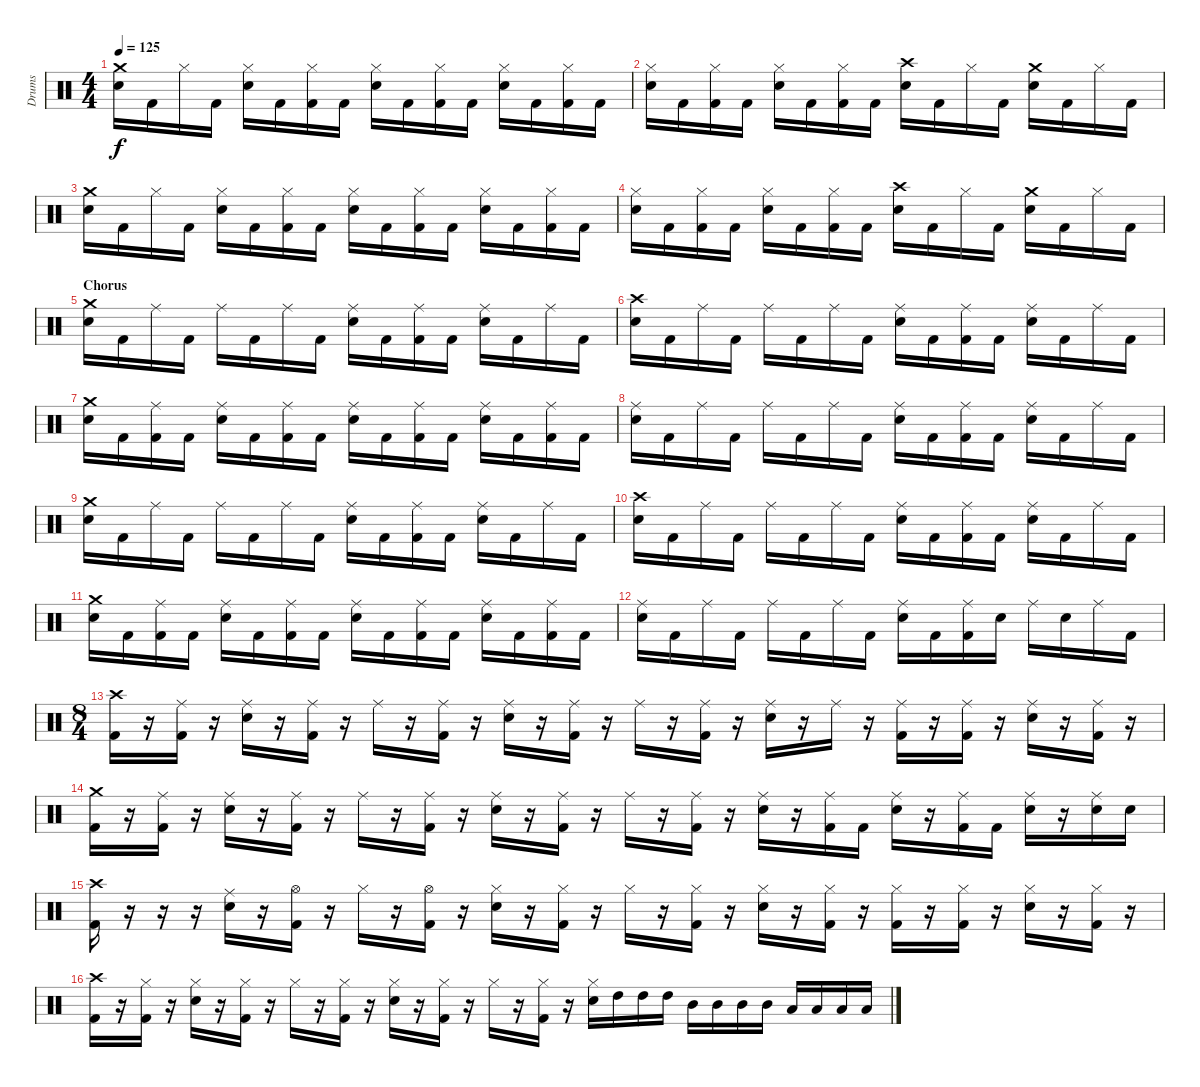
\track ("Drums" "Drums") {instrument percussion}
\staff {score}
\articulation defaults
\ts (4 4)
\tempo 125
\clef neutral
\ks c
("Crash medium (hit)" "Electric Snare (hit)").16{dy f} "Kick (hit) 2".16 "Hi-Hat (closed)".16 "Kick (hit) 2".16 ("Hi-Hat (closed)" "Electric Snare (hit)").16 "Kick (hit) 2".16 ("Hi-Hat (closed)" "Kick (hit) 2").16 "Kick (hit) 2".16 ("Hi-Hat (closed)" "Electric Snare (hit)").16 "Kick (hit) 2".16 ("Hi-Hat (closed)" "Kick (hit) 2").16 "Kick (hit) 2".16 ("Hi-Hat (closed)" "Electric Snare (hit)").16 "Kick (hit) 2".16 ("Hi-Hat (closed)" "Kick (hit) 2").16 "Kick (hit) 2".16 |
("Hi-Hat (closed)" "Electric Snare (hit)").16 "Kick (hit) 2".16 ("Hi-Hat (closed)" "Kick (hit) 2").16 "Kick (hit) 2".16 ("Hi-Hat (closed)" "Electric Snare (hit)").16 "Kick (hit) 2".16 ("Hi-Hat (closed)" "Kick (hit) 2").16 "Kick (hit) 2".16 ("Crash high (hit)" "Electric Snare (hit)").16 "Kick (hit) 2".16 "Hi-Hat (closed)".16 "Kick (hit) 2".16 ("Crash medium (hit)" "Electric Snare (hit)").16 "Kick (hit) 2".16 "Hi-Hat (closed)".16 "Kick (hit) 2".16 |
("Crash medium (hit)" "Electric Snare (hit)").16 "Kick (hit) 2".16 "Hi-Hat (closed)".16 "Kick (hit) 2".16 ("Hi-Hat (closed)" "Electric Snare (hit)").16 "Kick (hit) 2".16 ("Hi-Hat (closed)" "Kick (hit) 2").16 "Kick (hit) 2".16 ("Hi-Hat (closed)" "Electric Snare (hit)").16 "Kick (hit) 2".16 ("Hi-Hat (closed)" "Kick (hit) 2").16 "Kick (hit) 2".16 ("Hi-Hat (closed)" "Electric Snare (hit)").16 "Kick (hit) 2".16 ("Hi-Hat (closed)" "Kick (hit) 2").16 "Kick (hit) 2".16 |
("Hi-Hat (closed)" "Electric Snare (hit)").16 "Kick (hit) 2".16 ("Hi-Hat (closed)" "Kick (hit) 2").16 "Kick (hit) 2".16 ("Hi-Hat (closed)" "Electric Snare (hit)").16 "Kick (hit) 2".16 ("Hi-Hat (closed)" "Kick (hit) 2").16 "Kick (hit) 2".16 ("Crash high (hit)" "Electric Snare (hit)").16 "Kick (hit) 2".16 "Hi-Hat (closed)".16 "Kick (hit) 2".16 ("Crash medium (hit)" "Electric Snare (hit)").16 "Kick (hit) 2".16 "Hi-Hat (closed)".16 "Kick (hit) 2".16 |
\section ("" "Chorus")
("Crash medium (hit)" "Electric Snare (hit)").16 "Kick (hit) 2".16 "Ride (middle)".16 "Kick (hit) 2".16 "Ride (middle)".16 "Kick (hit) 2".16 "Ride (middle)".16 "Kick (hit) 2".16 ("Ride (middle)" "Electric Snare (hit)").16 "Kick (hit) 2".16 ("Ride (middle)" "Kick (hit) 2").16 "Kick (hit) 2".16 ("Ride (middle)" "Electric Snare (hit)").16 "Kick (hit) 2".16 "Ride (middle)".16 "Kick (hit) 2".16 |
("Crash high (hit)" "Electric Snare (hit)").16 "Kick (hit) 2".16 "Ride (middle)".16 "Kick (hit) 2".16 "Ride (middle)".16 "Kick (hit) 2".16 "Ride (middle)".16 "Kick (hit) 2".16 ("Ride (middle)" "Electric Snare (hit)").16 "Kick (hit) 2".16 ("Ride (middle)" "Kick (hit) 2").16 "Kick (hit) 2".16 ("Ride (middle)" "Electric Snare (hit)").16 "Kick (hit) 2".16 "Ride (middle)".16 "Kick (hit) 2".16 |
("Crash medium (hit)" "Electric Snare (hit)").16 "Kick (hit) 2".16 ("Ride (middle)" "Kick (hit) 2").16 "Kick (hit) 2".16 ("Ride (middle)" "Electric Snare (hit)").16 "Kick (hit) 2".16 ("Ride (middle)" "Kick (hit) 2").16 "Kick (hit) 2".16 ("Ride (middle)" "Electric Snare (hit)").16 "Kick (hit) 2".16 ("Ride (middle)" "Kick (hit) 2").16 "Kick (hit) 2".16 ("Ride (middle)" "Electric Snare (hit)").16 "Kick (hit) 2".16 ("Ride (middle)" "Kick (hit) 2").16 "Kick (hit) 2".16 |
("Ride (middle)" "Electric Snare (hit)").16 "Kick (hit) 2".16 "Ride (middle)".16 "Kick (hit) 2".16 "Ride (middle)".16 "Kick (hit) 2".16 "Ride (middle)".16 "Kick (hit) 2".16 ("Ride (middle)" "Electric Snare (hit)").16 "Kick (hit) 2".16 ("Ride (middle)" "Kick (hit) 2").16 "Kick (hit) 2".16 ("Ride (middle)" "Electric Snare (hit)").16 "Kick (hit) 2".16 "Ride (middle)".16 "Kick (hit) 2".16 |
("Crash medium (hit)" "Electric Snare (hit)").16 "Kick (hit) 2".16 "Ride (middle)".16 "Kick (hit) 2".16 "Ride (middle)".16 "Kick (hit) 2".16 "Ride (middle)".16 "Kick (hit) 2".16 ("Ride (middle)" "Electric Snare (hit)").16 "Kick (hit) 2".16 ("Ride (middle)" "Kick (hit) 2").16 "Kick (hit) 2".16 ("Ride (middle)" "Electric Snare (hit)").16 "Kick (hit) 2".16 "Ride (middle)".16 "Kick (hit) 2".16 |
("Crash high (hit)" "Electric Snare (hit)").16 "Kick (hit) 2".16 "Ride (middle)".16 "Kick (hit) 2".16 "Ride (middle)".16 "Kick (hit) 2".16 "Ride (middle)".16 "Kick (hit) 2".16 ("Ride (middle)" "Electric Snare (hit)").16 "Kick (hit) 2".16 ("Ride (middle)" "Kick (hit) 2").16 "Kick (hit) 2".16 ("Ride (middle)" "Electric Snare (hit)").16 "Kick (hit) 2".16 "Ride (middle)".16 "Kick (hit) 2".16 |
("Crash medium (hit)" "Electric Snare (hit)").16 "Kick (hit) 2".16 ("Ride (middle)" "Kick (hit) 2").16 "Kick (hit) 2".16 ("Ride (middle)" "Electric Snare (hit)").16 "Kick (hit) 2".16 ("Ride (middle)" "Kick (hit) 2").16 "Kick (hit) 2".16 ("Ride (middle)" "Electric Snare (hit)").16 "Kick (hit) 2".16 ("Ride (middle)" "Kick (hit) 2").16 "Kick (hit) 2".16 ("Ride (middle)" "Electric Snare (hit)").16 "Kick (hit) 2".16 ("Ride (middle)" "Kick (hit) 2").16 "Kick (hit) 2".16 |
("Ride (middle)" "Electric Snare (hit)").16 "Kick (hit) 2".16 "Ride (middle)".16 "Kick (hit) 2".16 "Ride (middle)".16 "Kick (hit) 2".16 "Ride (middle)".16 "Kick (hit) 2".16 ("Ride (middle)" "Electric Snare (hit)").16 "Kick (hit) 2".16 ("Ride (middle)" "Kick (hit) 2").16 "Electric Snare (hit)".16 "Ride (middle)".16 "Electric Snare (hit)".16 "Ride (middle)".16 "Kick (hit) 2".16 |
\ts (8 4)
("Crash high (hit)" "Kick (hit) 2").16 r.16 ("Ride (middle)" "Kick (hit) 2").16 r.16 ("Ride (middle)" "Electric Snare (hit)").16 r.16 ("Ride (middle)" "Kick (hit) 2").16 r.16 "Ride (middle)".16 r.16 ("Ride (middle)" "Kick (hit) 2").16 r.16 ("Ride (middle)" "Electric Snare (hit)").16 r.16 ("Ride (middle)" "Kick (hit) 2").16 r.16 "Ride (middle)".16 r.16 ("Ride (middle)" "Kick (hit) 2").16 r.16 ("Ride (middle)" "Electric Snare (hit)").16 r.16 "Ride (middle)".16 r.16 ("Ride (middle)" "Kick (hit) 2").16 r.16 ("Ride (middle)" "Kick (hit) 2").16 r.16 ("Ride (middle)" "Electric Snare (hit)").16 r.16 ("Ride (middle)" "Kick (hit) 2").16 r.16 |
("Crash medium (hit)" "Kick (hit) 2").16 r.16 ("Ride (middle)" "Kick (hit) 2").16 r.16 ("Ride (middle)" "Electric Snare (hit)").16 r.16 ("Ride (middle)" "Kick (hit) 2").16 r.16 "Ride (middle)".16 r.16 ("Ride (middle)" "Kick (hit) 2").16 r.16 ("Ride (middle)" "Electric Snare (hit)").16 r.16 ("Ride (middle)" "Kick (hit) 2").16 r.16 "Ride (middle)".16 r.16 ("Ride (middle)" "Kick (hit) 2").16 r.16 ("Ride (middle)" "Electric Snare (hit)").16 r.16 ("Ride (middle)" "Kick (hit) 2").16 "Kick (hit) 2".16 ("Ride (middle)" "Electric Snare (hit)").16 r.16 ("Ride (middle)" "Kick (hit) 2").16 "Kick (hit) 2".16 ("Ride (middle)" "Electric Snare (hit)").16 r.16 ("Ride (middle)" "Electric Snare (hit)").16 "Electric Snare (hit)".16 |
("Crash high (hit)" "Kick (hit) 2").16 r.16 r.16 r.16 ("Ride (middle)" "Electric Snare (hit)").16 r.16 ("Hi-Hat (open)" "Kick (hit) 2").16 r.16 "Hi-Hat (closed)".16 r.16 ("Hi-Hat (open)" "Kick (hit) 2").16 r.16 ("Hi-Hat (closed)" "Electric Snare (hit)").16 r.16 ("Hi-Hat (closed)" "Kick (hit) 2").16 r.16 "Hi-Hat (closed)".16 r.16 ("Hi-Hat (closed)" "Kick (hit) 2").16 r.16 ("Hi-Hat (closed)" "Electric Snare (hit)").16 r.16 ("Hi-Hat (closed)" "Kick (hit) 2").16 r.16 ("Hi-Hat (closed)" "Kick (hit) 2").16 r.16 ("Hi-Hat (closed)" "Kick (hit) 2").16 r.16 ("Hi-Hat (closed)" "Electric Snare (hit)").16 r.16 ("Hi-Hat (closed)" "Kick (hit) 2").16 r.16 |
("Crash high (hit)" "Kick (hit) 2").16 r.16 ("Hi-Hat (closed)" "Kick (hit) 2").16 r.16 ("Hi-Hat (closed)" "Electric Snare (hit)").16 r.16 ("Hi-Hat (closed)" "Kick (hit) 2").16 r.16 "Hi-Hat (closed)".16 r.16 ("Hi-Hat (closed)" "Kick (hit) 2").16 r.16 ("Hi-Hat (closed)" "Electric Snare (hit)").16 r.16 ("Hi-Hat (closed)" "Kick (hit) 2").16 r.16 "Hi-Hat (closed)".16 r.16 ("Hi-Hat (closed)" "Kick (hit) 2").16 r.16 ("Hi-Hat (closed)" "Electric Snare (hit)").16 "High Tom (hit)".16 "High Tom (hit)".16 "High Tom (hit)".16 "Mid Tom (hit)".16 "Mid Tom (hit)".16 "Mid Tom (hit)".16 "Mid Tom (hit)".16 "Low Tom (hit)".16 "Low Tom (hit)".16 "Low Tom (hit)".16 "Low Tom (hit)".16
